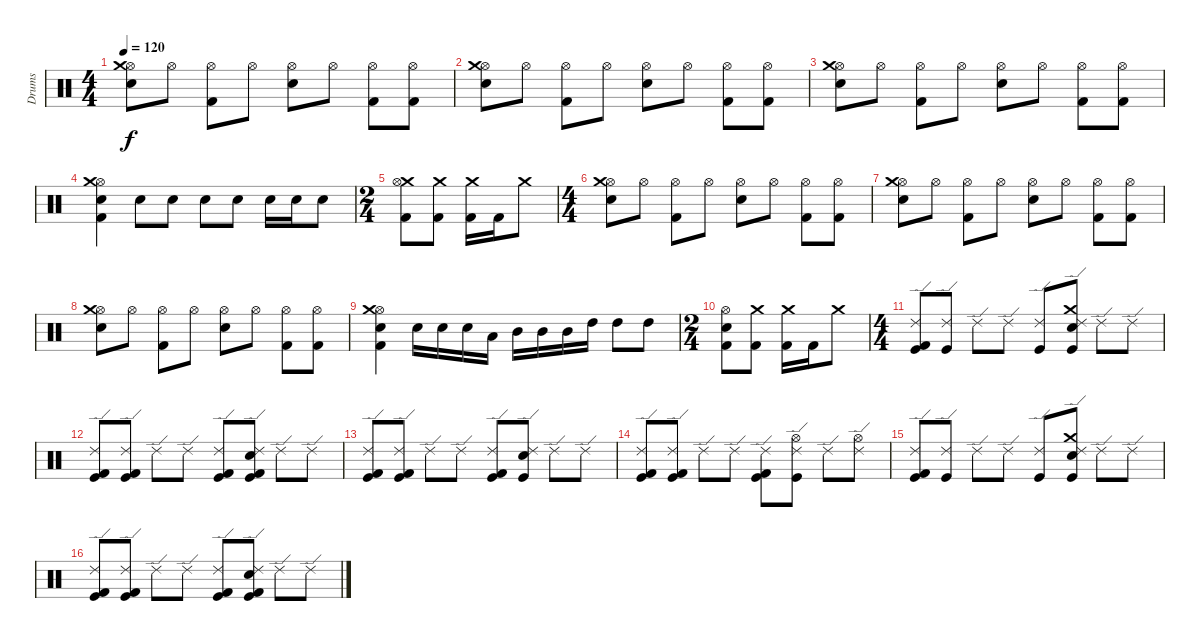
\track ("Drums" "Drums") {instrument percussion}
\staff {score}
\articulation defaults
\ts (4 4)
\tempo 120
\clef neutral
\ks c
("Hi-Hat (open)" "Snare (hit) 2" "Crash medium (hit)").8{dy f} "Hi-Hat (open)".8 ("Hi-Hat (open)" "Kick (hit) 2").8 "Hi-Hat (open)".8 ("Hi-Hat (open)" "Snare (hit) 2").8 "Hi-Hat (open)".8 ("Hi-Hat (open)" "Kick (hit) 2").8 ("Hi-Hat (open)" "Kick (hit) 2").8 |
("Hi-Hat (open)" "Snare (hit) 2" "Crash medium (hit)").8 "Hi-Hat (open)".8 ("Hi-Hat (open)" "Kick (hit) 2").8 "Hi-Hat (open)".8 ("Hi-Hat (open)" "Snare (hit) 2").8 "Hi-Hat (open)".8 ("Hi-Hat (open)" "Kick (hit) 2").8 ("Hi-Hat (open)" "Kick (hit) 2").8 |
("Hi-Hat (open)" "Snare (hit) 2" "Crash medium (hit)").8 "Hi-Hat (open)".8 ("Hi-Hat (open)" "Kick (hit) 2").8 "Hi-Hat (open)".8 ("Hi-Hat (open)" "Snare (hit) 2").8 "Hi-Hat (open)".8 ("Hi-Hat (open)" "Kick (hit) 2").8 ("Hi-Hat (open)" "Kick (hit) 2").8 |
("Hi-Hat (open)" "Snare (hit) 2" "Kick (hit) 2" "Crash medium (hit)").4 "Snare (hit) 2".8 "Snare (hit) 2".8 "Snare (hit) 2".8 "Snare (hit) 2".8 "Snare (hit) 2".16 "Snare (hit) 2".16 "Snare (hit) 2".8 |
\ts (2 4)
("Crash medium (hit)" "Kick (hit) 2" "Hi-Hat (open)").8 ("Crash medium (hit)" "Kick (hit) 2").8 ("Crash medium (hit)" "Kick (hit) 2").16 "Kick (hit) 2".16 "Crash medium (hit)".8 |
\ts (4 4)
("Hi-Hat (open)" "Snare (hit) 2" "Crash medium (hit)").8 "Hi-Hat (open)".8 ("Hi-Hat (open)" "Kick (hit) 2").8 "Hi-Hat (open)".8 ("Hi-Hat (open)" "Snare (hit) 2").8 "Hi-Hat (open)".8 ("Hi-Hat (open)" "Kick (hit) 2").8 ("Hi-Hat (open)" "Kick (hit) 2").8 |
("Hi-Hat (open)" "Snare (hit) 2" "Crash medium (hit)").8 "Hi-Hat (open)".8 ("Hi-Hat (open)" "Kick (hit) 2").8 "Hi-Hat (open)".8 ("Hi-Hat (open)" "Snare (hit) 2").8 "Hi-Hat (open)".8 ("Hi-Hat (open)" "Kick (hit) 2").8 ("Hi-Hat (open)" "Kick (hit) 2").8 |
("Hi-Hat (open)" "Snare (hit) 2" "Crash medium (hit)").8 "Hi-Hat (open)".8 ("Hi-Hat (open)" "Kick (hit) 2").8 "Hi-Hat (open)".8 ("Hi-Hat (open)" "Snare (hit) 2").8 "Hi-Hat (open)".8 ("Hi-Hat (open)" "Kick (hit) 2").8 ("Hi-Hat (open)" "Kick (hit) 2").8 |
("Hi-Hat (open)" "Snare (hit) 2" "Kick (hit) 2" "Crash medium (hit)").4 "Snare (hit) 2".16 "Snare (hit) 2".16 "Snare (hit) 2".16 "Low Tom (hit)".16 "Mid Tom (hit)".16 "Mid Tom (hit)".16 "Mid Tom (hit)".16 "High Tom (hit)".16 "High Tom (hit)".8 "High Tom (hit)".8 |
\ts (2 4)
("Snare (hit) 2" "Kick (hit) 2" "Hi-Hat (open)").8 ("Crash medium (hit)" "Kick (hit) 2").8 ("Crash medium (hit)" "Kick (hit) 2").16 "Kick (hit) 2".16 "Crash medium (hit)".8 |
\ts (4 4)
("Ride (edge) 2" "Kick (hit) 2" "Kick (hit)").8 ("Ride (edge) 2" "Kick (hit)").8 "Ride (edge) 2".8 "Ride (edge) 2".8 ("Ride (edge) 2" "Kick (hit)").8 ("Ride (edge) 2" "Crash medium (hit)" "Snare (hit) 2" "Kick (hit)").8 "Ride (edge) 2".8 "Ride (edge) 2".8 |
("Ride (edge) 2" "Kick (hit) 2" "Kick (hit)").8 ("Ride (edge) 2" "Kick (hit) 2" "Kick (hit)").8 "Ride (edge) 2".8 "Ride (edge) 2".8 ("Ride (edge) 2" "Kick (hit) 2" "Kick (hit)").8 ("Ride (edge) 2" "Snare (hit) 2" "Kick (hit)" "Kick (hit) 2").8 "Ride (edge) 2".8 "Ride (edge) 2".8 |
("Ride (edge) 2" "Kick (hit) 2" "Kick (hit)").8 ("Ride (edge) 2" "Kick (hit) 2" "Kick (hit)").8 "Ride (edge) 2".8 "Ride (edge) 2".8 ("Ride (edge) 2" "Kick (hit) 2" "Kick (hit)").8 ("Ride (edge) 2" "Snare (hit) 2" "Kick (hit)").8 "Ride (edge) 2".8 "Ride (edge) 2".8 |
("Ride (edge) 2" "Kick (hit) 2" "Kick (hit)").8 ("Ride (edge) 2" "Kick (hit) 2" "Kick (hit)").8 "Ride (edge) 2".8 "Ride (edge) 2".8 ("Ride (edge) 2" "Kick (hit) 2" "Kick (hit)").8 ("Ride (edge) 2" "Hi-Hat (open)" "Kick (hit)").8 "Ride (edge) 2".8 ("Ride (edge) 2" "Hi-Hat (open)").8 |
("Ride (edge) 2" "Kick (hit) 2" "Kick (hit)").8 ("Ride (edge) 2" "Kick (hit)").8 "Ride (edge) 2".8 "Ride (edge) 2".8 ("Ride (edge) 2" "Kick (hit)").8 ("Ride (edge) 2" "Crash medium (hit)" "Snare (hit) 2" "Kick (hit)").8 "Ride (edge) 2".8 "Ride (edge) 2".8 |
("Ride (edge) 2" "Kick (hit) 2" "Kick (hit)").8 ("Ride (edge) 2" "Kick (hit) 2" "Kick (hit)").8 "Ride (edge) 2".8 "Ride (edge) 2".8 ("Ride (edge) 2" "Kick (hit) 2" "Kick (hit)").8 ("Ride (edge) 2" "Snare (hit) 2" "Kick (hit)" "Kick (hit) 2").8 "Ride (edge) 2".8 "Ride (edge) 2".8
